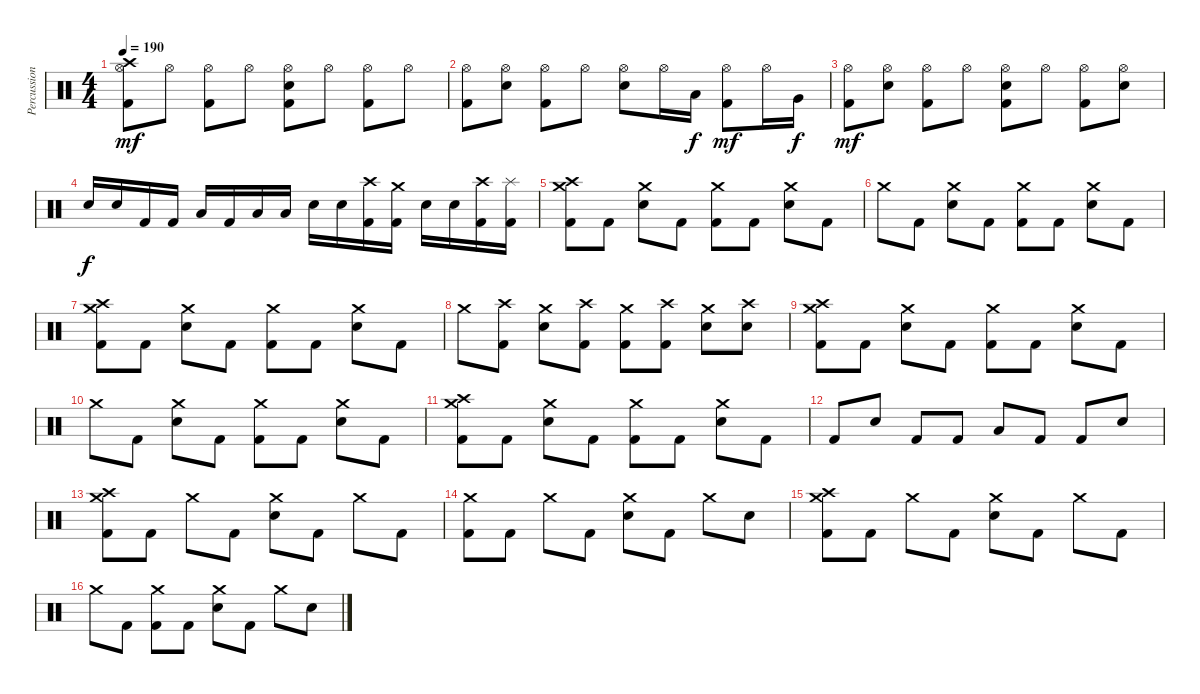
\track ("Percussion" "Percussion") {instrument percussion}
\staff {score}
\articulation defaults
\ts (4 4)
\tempo 190
\clef neutral
\ks c
("Crash high (hit)" "Hi-Hat (open)" "Kick (hit) 2").8{dy mf} "Hi-Hat (open)".8 ("Hi-Hat (open)" "Kick (hit) 2").8 "Hi-Hat (open)".8 ("Hi-Hat (open)" "Electric Snare (hit)" "Kick (hit) 2").8 "Hi-Hat (open)".8 ("Hi-Hat (open)" "Kick (hit) 2").8 "Hi-Hat (open)".8 |
("Hi-Hat (open)" "Kick (hit) 2").8 ("Hi-Hat (open)" "Electric Snare (hit)").8 ("Hi-Hat (open)" "Kick (hit) 2").8 "Hi-Hat (open)".8 ("Hi-Hat (open)" "Electric Snare (hit)").8 "Hi-Hat (open)".16 "Low Tom (hit)".16{dy f} ("Hi-Hat (open)" "Kick (hit) 2").8{dy mf} "Hi-Hat (open)".16 "Very Low Tom (hit)".16{dy f} |
("Hi-Hat (open)" "Kick (hit) 2").8{dy mf} ("Hi-Hat (open)" "Electric Snare (hit)").8 ("Hi-Hat (open)" "Kick (hit) 2").8 "Hi-Hat (open)".8 ("Hi-Hat (open)" "Electric Snare (hit)" "Kick (hit) 2").8 "Hi-Hat (open)".8 ("Hi-Hat (open)" "Kick (hit) 2").8 ("Hi-Hat (open)" "Electric Snare (hit)").8 |
"Electric Snare (hit)".16{dy f} "Electric Snare (hit)".16 "Kick (hit) 2".16 "Kick (hit) 2".16 "Low Tom (hit)".16 "Kick (hit) 2".16 "Low Tom (hit)".16 "Low Tom (hit)".16 "Electric Snare (hit)".16 "Electric Snare (hit)".16 ("Crash high (hit)" "Kick (hit) 2").16 ("Crash medium (hit)" "Kick (hit) 2").16 "Electric Snare (hit)".16 "Electric Snare (hit)".16 ("Crash high (hit)" "Kick (hit) 2").16 ("Splash (hit)" "Kick (hit) 2").16 |
("Crash high (hit)" "Crash medium (hit)" "Kick (hit) 2").8 "Kick (hit) 2".8 ("Crash medium (hit)" "Electric Snare (hit)").8 "Kick (hit) 2".8 ("Crash medium (hit)" "Kick (hit) 2").8 "Kick (hit) 2".8 ("Crash medium (hit)" "Electric Snare (hit)").8 "Kick (hit) 2".8 |
"Crash medium (hit)".8 "Kick (hit) 2".8 ("Crash medium (hit)" "Electric Snare (hit)").8 "Kick (hit) 2".8 ("Crash medium (hit)" "Kick (hit) 2").8 "Kick (hit) 2".8 ("Crash medium (hit)" "Electric Snare (hit)").8 "Kick (hit) 2".8 |
("Crash high (hit)" "Crash medium (hit)" "Kick (hit) 2").8 "Kick (hit) 2".8 ("Crash medium (hit)" "Electric Snare (hit)").8 "Kick (hit) 2".8 ("Crash medium (hit)" "Kick (hit) 2").8 "Kick (hit) 2".8 ("Crash medium (hit)" "Electric Snare (hit)").8 "Kick (hit) 2".8 |
"Crash medium (hit)".8 ("Crash high (hit)" "Kick (hit) 2").8 ("Crash medium (hit)" "Electric Snare (hit)").8 ("Crash high (hit)" "Kick (hit) 2").8 ("Crash medium (hit)" "Kick (hit) 2").8 ("Crash high (hit)" "Kick (hit) 2").8 ("Crash medium (hit)" "Electric Snare (hit)").8 ("Crash high (hit)" "Electric Snare (hit)").8 |
("Crash high (hit)" "Crash medium (hit)" "Kick (hit) 2").8 "Kick (hit) 2".8 ("Crash medium (hit)" "Electric Snare (hit)").8 "Kick (hit) 2".8 ("Crash medium (hit)" "Kick (hit) 2").8 "Kick (hit) 2".8 ("Crash medium (hit)" "Electric Snare (hit)").8 "Kick (hit) 2".8 |
"Crash medium (hit)".8 "Kick (hit) 2".8 ("Crash medium (hit)" "Electric Snare (hit)").8 "Kick (hit) 2".8 ("Crash medium (hit)" "Kick (hit) 2").8 "Kick (hit) 2".8 ("Crash medium (hit)" "Electric Snare (hit)").8 "Kick (hit) 2".8 |
("Crash high (hit)" "Crash medium (hit)" "Kick (hit) 2").8 "Kick (hit) 2".8 ("Crash medium (hit)" "Electric Snare (hit)").8 "Kick (hit) 2".8 ("Crash medium (hit)" "Kick (hit) 2").8 "Kick (hit) 2".8 ("Crash medium (hit)" "Electric Snare (hit)").8 "Kick (hit) 2".8 |
"Kick (hit) 2".8 "Electric Snare (hit)".8 "Kick (hit) 2".8 "Kick (hit) 2".8 "Low Tom (hit)".8 "Kick (hit) 2".8 "Kick (hit) 2".8 "Electric Snare (hit)".8 |
("Crash high (hit)" "Crash medium (hit)" "Kick (hit) 2").8 "Kick (hit) 2".8 "Crash medium (hit)".8 "Kick (hit) 2".8 ("Crash medium (hit)" "Electric Snare (hit)").8 "Kick (hit) 2".8 "Crash medium (hit)".8 "Kick (hit) 2".8 |
("Crash medium (hit)" "Kick (hit) 2").8 "Kick (hit) 2".8 "Crash medium (hit)".8 "Kick (hit) 2".8 ("Crash medium (hit)" "Electric Snare (hit)").8 "Kick (hit) 2".8 "Crash medium (hit)".8 "Electric Snare (hit)".8 |
("Crash high (hit)" "Crash medium (hit)" "Kick (hit) 2").8 "Kick (hit) 2".8 "Crash medium (hit)".8 "Kick (hit) 2".8 ("Crash medium (hit)" "Electric Snare (hit)").8 "Kick (hit) 2".8 "Crash medium (hit)".8 "Kick (hit) 2".8 |
"Crash medium (hit)".8 "Kick (hit) 2".8 ("Crash medium (hit)" "Kick (hit) 2").8 "Kick (hit) 2".8 ("Crash medium (hit)" "Electric Snare (hit)").8 "Kick (hit) 2".8 "Crash medium (hit)".8 "Electric Snare (hit)".8
